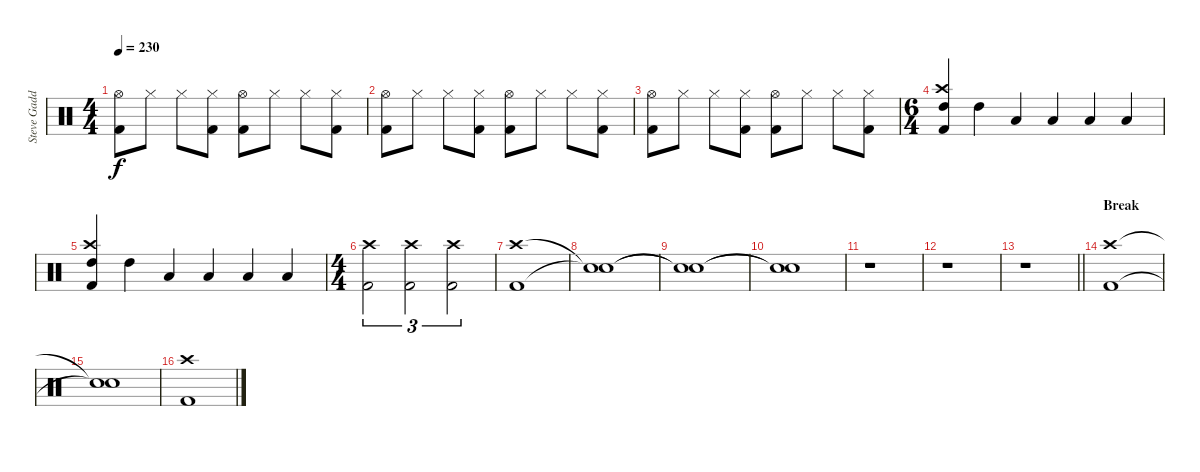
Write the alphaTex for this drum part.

\track ("Steve Gadd" "Steve Gadd") {instrument percussion}
\staff {score}
\articulation defaults
\ts (4 4)
\tempo 230
\clef neutral
\ks c
("Hi-Hat (open)" "Kick (hit) 2").8{dy f} "Hi-Hat (closed)".8 "Hi-Hat (closed)".8 ("Hi-Hat (closed)" "Kick (hit) 2").8 ("Hi-Hat (open)" "Kick (hit) 2").8 "Hi-Hat (closed)".8 "Hi-Hat (closed)".8 ("Hi-Hat (closed)" "Kick (hit) 2").8 |
("Hi-Hat (open)" "Kick (hit) 2").8 "Hi-Hat (closed)".8 "Hi-Hat (closed)".8 ("Hi-Hat (closed)" "Kick (hit) 2").8 ("Hi-Hat (open)" "Kick (hit) 2").8 "Hi-Hat (closed)".8 "Hi-Hat (closed)".8 ("Hi-Hat (closed)" "Kick (hit) 2").8 |
("Hi-Hat (open)" "Kick (hit) 2").8 "Hi-Hat (closed)".8 "Hi-Hat (closed)".8 ("Hi-Hat (closed)" "Kick (hit) 2").8 ("Hi-Hat (open)" "Kick (hit) 2").8 "Hi-Hat (closed)".8 "Hi-Hat (closed)".8 ("Hi-Hat (closed)" "Kick (hit) 2").8 |
\ts (6 4)
("Crash high (hit)" "High Tom (hit)" "Kick (hit) 2").4 "High Tom (hit)".4 "Low Tom (hit)".4 "Low Tom (hit)".4 "Low Floor Tom (hit)".4 "Low Floor Tom (hit)".4 |
("Crash high (hit)" "High Tom (hit)" "Kick (hit) 2").4 "High Tom (hit)".4 "Low Tom (hit)".4 "Low Tom (hit)".4 "Low Floor Tom (hit)".4 "Low Floor Tom (hit)".4 |
\ts (4 4)
("Crash high (hit)" "Kick (hit) 2").2{tu (3 2)} ("Crash high (hit)" "Kick (hit) 2").2{tu (3 2)} ("Crash high (hit)" "Kick (hit) 2").2{tu (3 2)} |
("Crash high (hit)" "Kick (hit) 2").1 |
("Snare (hit)"{t} "Snare (hit)"{t}).1 |
("Snare (hit)"{t} "Snare (hit)"{t}).1 |
("Snare (hit)"{t} "Snare (hit)"{t}).1 |
r.1 |
r.1 |
\barLineRight lightlight
r.1 |
\section ("" "Break")
("Crash high (hit)" "Kick (hit) 2").1{volume 13} |
("Snare (hit)"{t} "Snare (hit)"{t}).1 |
("Crash high (hit)" "Kick (hit) 2").1
